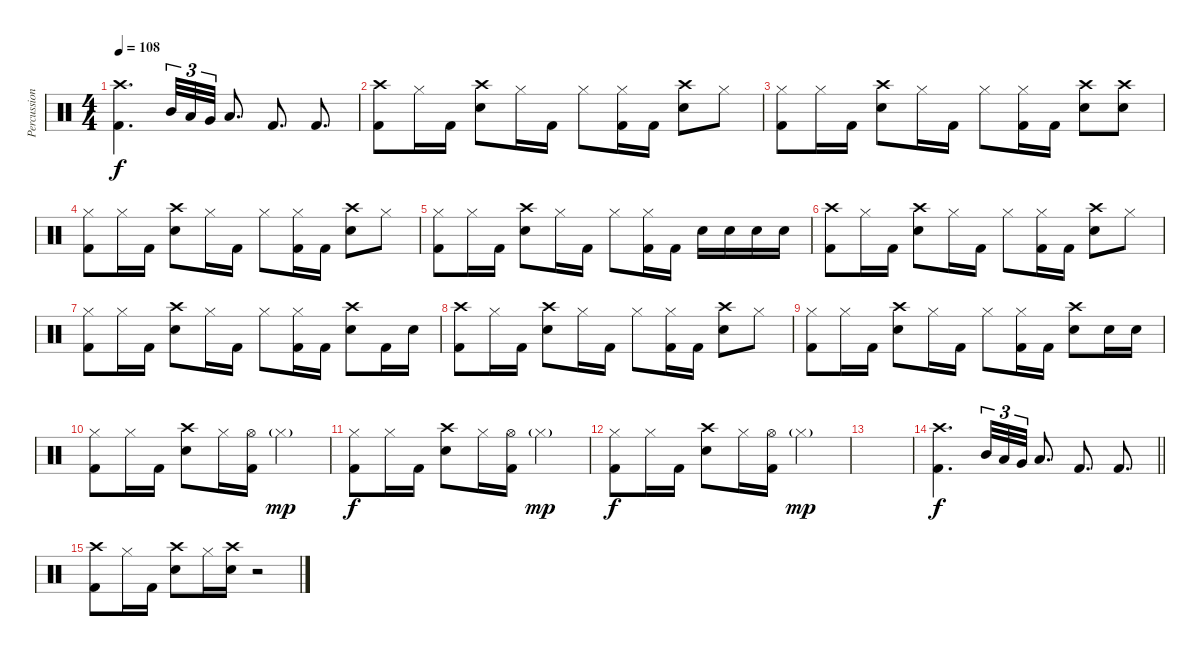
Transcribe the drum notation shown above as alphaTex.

\track ("Percussion" "Percussion") {instrument percussion}
\staff {score}
\articulation defaults
\ts (4 4)
\tempo 108
\clef neutral
\ks c
("Crash high (hit)" "Kick (hit) 2").4{d dy f} "Mid Tom (hit)".32{tu (3 2)} "Low Tom (hit)".32{tu (3 2)} "Very Low Tom (hit)".32{tu (3 2)} "Low Floor Tom (hit)".8{d} "Kick (hit) 2".8{d} "Kick (hit) 2".8{d} |
("Crash high (hit)" "Kick (hit) 2").8 "Hi-Hat (closed)".16 "Kick (hit) 2".16 ("Crash high (hit)" "Snare (hit) 2").8 "Hi-Hat (closed)".16 "Kick (hit) 2".16 "Hi-Hat (closed)".8 ("Hi-Hat (closed)" "Kick (hit) 2").16 "Kick (hit) 2".16 ("Crash high (hit)" "Snare (hit) 2").8 "Hi-Hat (closed)".8 |
("Hi-Hat (closed)" "Kick (hit) 2").8 "Hi-Hat (closed)".16 "Kick (hit) 2".16 ("Crash high (hit)" "Snare (hit) 2").8 "Hi-Hat (closed)".16 "Kick (hit) 2".16 "Hi-Hat (closed)".8 ("Hi-Hat (closed)" "Kick (hit) 2").16 "Kick (hit) 2".16 ("Crash high (hit)" "Snare (hit) 2").8 ("Crash high (hit)" "Snare (hit) 2").8 |
("Hi-Hat (closed)" "Kick (hit) 2").8 "Hi-Hat (closed)".16 "Kick (hit) 2".16 ("Crash high (hit)" "Snare (hit) 2").8 "Hi-Hat (closed)".16 "Kick (hit) 2".16 "Hi-Hat (closed)".8 ("Hi-Hat (closed)" "Kick (hit) 2").16 "Kick (hit) 2".16 ("Crash high (hit)" "Snare (hit) 2").8 "Hi-Hat (closed)".8 |
("Hi-Hat (closed)" "Kick (hit) 2").8 "Hi-Hat (closed)".16 "Kick (hit) 2".16 ("Crash high (hit)" "Snare (hit) 2").8 "Hi-Hat (closed)".16 "Kick (hit) 2".16 "Hi-Hat (closed)".8 ("Hi-Hat (closed)" "Kick (hit) 2").16 "Kick (hit) 2".16 "Snare (hit) 2".16 "Snare (hit) 2".16 "Snare (hit) 2".16 "Snare (hit) 2".16 |
("Crash high (hit)" "Kick (hit) 2").8 "Hi-Hat (closed)".16 "Kick (hit) 2".16 ("Crash high (hit)" "Snare (hit) 2").8 "Hi-Hat (closed)".16 "Kick (hit) 2".16 "Hi-Hat (closed)".8 ("Hi-Hat (closed)" "Kick (hit) 2").16 "Kick (hit) 2".16 ("Crash high (hit)" "Snare (hit) 2").8 "Hi-Hat (closed)".8 |
("Hi-Hat (closed)" "Kick (hit) 2").8 "Hi-Hat (closed)".16 "Kick (hit) 2".16 ("Crash high (hit)" "Snare (hit) 2").8 "Hi-Hat (closed)".16 "Kick (hit) 2".16 "Hi-Hat (closed)".8 ("Hi-Hat (closed)" "Kick (hit) 2").16 "Kick (hit) 2".16 ("Crash high (hit)" "Snare (hit) 2").8 "Kick (hit) 2".16 "Snare (hit) 2".16 |
("Crash high (hit)" "Kick (hit) 2").8 "Hi-Hat (closed)".16 "Kick (hit) 2".16 ("Crash high (hit)" "Snare (hit) 2").8 "Hi-Hat (closed)".16 "Kick (hit) 2".16 "Hi-Hat (closed)".8 ("Hi-Hat (closed)" "Kick (hit) 2").16 "Kick (hit) 2".16 ("Crash high (hit)" "Snare (hit) 2").8 "Hi-Hat (closed)".8 |
("Hi-Hat (closed)" "Kick (hit) 2").8 "Hi-Hat (closed)".16 "Kick (hit) 2".16 ("Crash high (hit)" "Snare (hit) 2").8 "Hi-Hat (closed)".16 "Kick (hit) 2".16 "Hi-Hat (closed)".8 ("Hi-Hat (closed)" "Kick (hit) 2").16 "Kick (hit) 2".16 ("Crash high (hit)" "Snare (hit) 2").8 "Snare (hit) 2".16 "Snare (hit) 2".16 |
("Hi-Hat (closed)" "Kick (hit) 2").8 "Hi-Hat (closed)".16 "Kick (hit) 2".16 ("Crash high (hit)" "Snare (hit) 2").8 "Hi-Hat (closed)".16 ("Hi-Hat (open)" "Kick (hit) 2").16 "Hi-Hat (closed)"{g}.2{dy mp} |
("Hi-Hat (closed)" "Kick (hit) 2").8{dy f} "Hi-Hat (closed)".16 "Kick (hit) 2".16 ("Crash high (hit)" "Snare (hit) 2").8 "Hi-Hat (closed)".16 ("Hi-Hat (open)" "Kick (hit) 2").16 "Hi-Hat (closed)"{g}.2{dy mp} |
("Hi-Hat (closed)" "Kick (hit) 2").8{dy f} "Hi-Hat (closed)".16 "Kick (hit) 2".16 ("Crash high (hit)" "Snare (hit) 2").8 "Hi-Hat (closed)".16 ("Hi-Hat (open)" "Kick (hit) 2").16 "Hi-Hat (closed)"{g}.2{dy mp} |
|
\barLineRight lightlight
("Crash high (hit)" "Kick (hit) 2").4{d dy f} "Mid Tom (hit)".32{tu (3 2)} "Low Tom (hit)".32{tu (3 2)} "Very Low Tom (hit)".32{tu (3 2)} "Low Floor Tom (hit)".8{d} "Kick (hit) 2".8{d} "Kick (hit) 2".8{d} |
("Crash high (hit)" "Kick (hit) 2").8 "Hi-Hat (closed)".16 "Kick (hit) 2".16 ("Crash high (hit)" "Snare (hit) 2").8 "Hi-Hat (closed)".16 ("Crash high (hit)" "Snare (hit) 2").16 r.2
